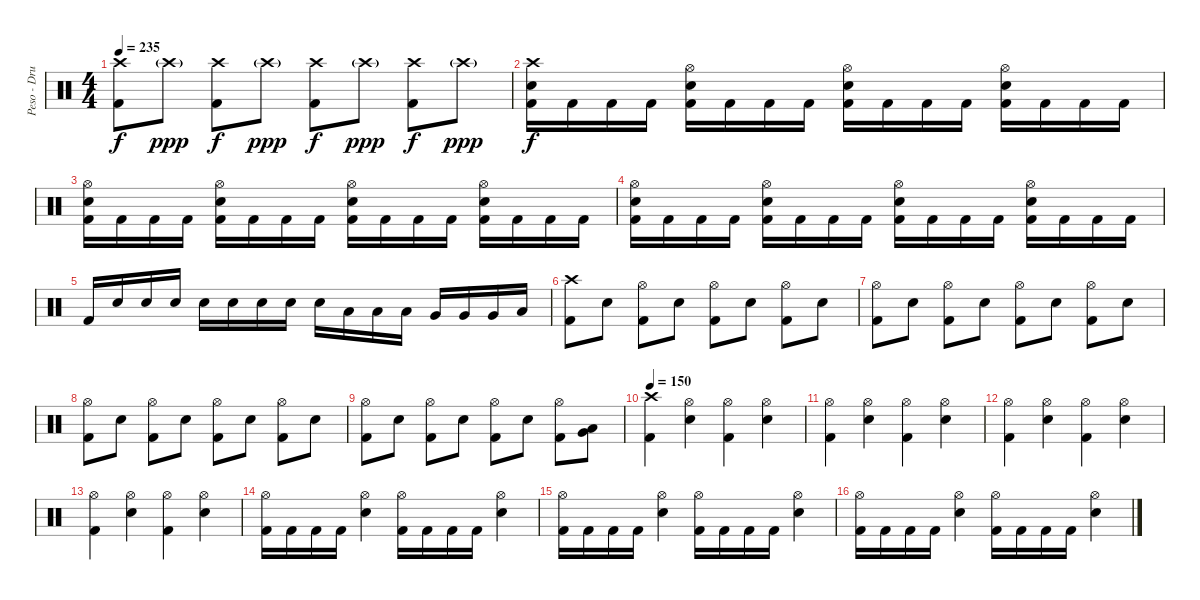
\track ("Peso - Drums" "Peso - Dru") {instrument percussion}
\staff {score}
\articulation defaults
\ts (4 4)
\tempo 235
\clef neutral
\ks c
("Crash high (hit)" "Kick (hit) 2").8{dy f} "Crash high (hit)"{g}.8{dy ppp} ("Crash high (hit)" "Kick (hit) 2").8{dy f} "Crash high (hit)"{g}.8{dy ppp} ("Crash high (hit)" "Kick (hit) 2").8{dy f} "Crash high (hit)"{g}.8{dy ppp} ("Crash high (hit)" "Kick (hit) 2").8{dy f} "Crash high (hit)"{g}.8{dy ppp} |
("Crash high (hit)" "Electric Snare (hit)" "Kick (hit) 2").16{dy f} "Kick (hit) 2".16 "Kick (hit) 2".16 "Kick (hit) 2".16 ("Hi-Hat (open)" "Electric Snare (hit)" "Kick (hit) 2").16 "Kick (hit) 2".16 "Kick (hit) 2".16 "Kick (hit) 2".16 ("Hi-Hat (open)" "Electric Snare (hit)" "Kick (hit) 2").16 "Kick (hit) 2".16 "Kick (hit) 2".16 "Kick (hit) 2".16 ("Hi-Hat (open)" "Electric Snare (hit)" "Kick (hit) 2").16 "Kick (hit) 2".16 "Kick (hit) 2".16 "Kick (hit) 2".16 |
("Hi-Hat (open)" "Electric Snare (hit)" "Kick (hit) 2").16 "Kick (hit) 2".16 "Kick (hit) 2".16 "Kick (hit) 2".16 ("Hi-Hat (open)" "Electric Snare (hit)" "Kick (hit) 2").16 "Kick (hit) 2".16 "Kick (hit) 2".16 "Kick (hit) 2".16 ("Hi-Hat (open)" "Electric Snare (hit)" "Kick (hit) 2").16 "Kick (hit) 2".16 "Kick (hit) 2".16 "Kick (hit) 2".16 ("Hi-Hat (open)" "Electric Snare (hit)" "Kick (hit) 2").16 "Kick (hit) 2".16 "Kick (hit) 2".16 "Kick (hit) 2".16 |
("Hi-Hat (open)" "Electric Snare (hit)" "Kick (hit) 2").16 "Kick (hit) 2".16 "Kick (hit) 2".16 "Kick (hit) 2".16 ("Hi-Hat (open)" "Electric Snare (hit)" "Kick (hit) 2").16 "Kick (hit) 2".16 "Kick (hit) 2".16 "Kick (hit) 2".16 ("Hi-Hat (open)" "Electric Snare (hit)" "Kick (hit) 2").16 "Kick (hit) 2".16 "Kick (hit) 2".16 "Kick (hit) 2".16 ("Hi-Hat (open)" "Electric Snare (hit)" "Kick (hit) 2").16 "Kick (hit) 2".16 "Kick (hit) 2".16 "Kick (hit) 2".16 |
"Kick (hit) 2".16 "Electric Snare (hit)".16 "Electric Snare (hit)".16 "Electric Snare (hit)".16 "Electric Snare (hit)".16 "Electric Snare (hit)".16 "Electric Snare (hit)".16 "Electric Snare (hit)".16 "Electric Snare (hit)".16 "Low Tom (hit)".16 "Low Tom (hit)".16 "Low Tom (hit)".16 "Very Low Tom (hit)".16 "Very Low Tom (hit)".16 "Very Low Tom (hit)".16 "Low Floor Tom (hit)".16 |
("Crash high (hit)" "Kick (hit) 2").8 "Electric Snare (hit)".8 ("Hi-Hat (open)" "Kick (hit) 2").8 "Electric Snare (hit)".8 ("Hi-Hat (open)" "Kick (hit) 2").8 "Electric Snare (hit)".8 ("Hi-Hat (open)" "Kick (hit) 2").8 "Electric Snare (hit)".8 |
("Hi-Hat (open)" "Kick (hit) 2").8 "Electric Snare (hit)".8 ("Hi-Hat (open)" "Kick (hit) 2").8 "Electric Snare (hit)".8 ("Hi-Hat (open)" "Kick (hit) 2").8 "Electric Snare (hit)".8 ("Hi-Hat (open)" "Kick (hit) 2").8 "Electric Snare (hit)".8 |
("Hi-Hat (open)" "Kick (hit) 2").8 "Electric Snare (hit)".8 ("Hi-Hat (open)" "Kick (hit) 2").8 "Electric Snare (hit)".8 ("Hi-Hat (open)" "Kick (hit) 2").8 "Electric Snare (hit)".8 ("Hi-Hat (open)" "Kick (hit) 2").8 "Electric Snare (hit)".8 |
("Hi-Hat (open)" "Kick (hit) 2").8 "Electric Snare (hit)".8 ("Hi-Hat (open)" "Kick (hit) 2").8 "Electric Snare (hit)".8 ("Hi-Hat (open)" "Kick (hit) 2").8 "Electric Snare (hit)".8 ("Hi-Hat (open)" "Kick (hit) 2").8 ("Very Low Tom (hit)" "Low Floor Tom (hit)").8 |
\tempo 150
("Crash high (hit)" "Kick (hit) 2").4 ("Hi-Hat (open)" "Electric Snare (hit)").4 ("Hi-Hat (open)" "Kick (hit) 2").4 ("Hi-Hat (open)" "Electric Snare (hit)").4 |
("Hi-Hat (open)" "Kick (hit) 2").4 ("Hi-Hat (open)" "Electric Snare (hit)").4 ("Hi-Hat (open)" "Kick (hit) 2").4 ("Hi-Hat (open)" "Electric Snare (hit)").4 |
("Hi-Hat (open)" "Kick (hit) 2").4 ("Hi-Hat (open)" "Electric Snare (hit)").4 ("Hi-Hat (open)" "Kick (hit) 2").4 ("Hi-Hat (open)" "Electric Snare (hit)").4 |
("Hi-Hat (open)" "Kick (hit) 2").4 ("Hi-Hat (open)" "Electric Snare (hit)").4 ("Hi-Hat (open)" "Kick (hit) 2").4 ("Hi-Hat (open)" "Electric Snare (hit)").4 |
("Hi-Hat (open)" "Kick (hit) 2").16 "Kick (hit) 2".16 "Kick (hit) 2".16 "Kick (hit) 2".16 ("Hi-Hat (open)" "Electric Snare (hit)").4 ("Hi-Hat (open)" "Kick (hit) 2").16 "Kick (hit) 2".16 "Kick (hit) 2".16 "Kick (hit) 2".16 ("Hi-Hat (open)" "Electric Snare (hit)").4 |
("Hi-Hat (open)" "Kick (hit) 2").16 "Kick (hit) 2".16 "Kick (hit) 2".16 "Kick (hit) 2".16 ("Hi-Hat (open)" "Electric Snare (hit)").4 ("Hi-Hat (open)" "Kick (hit) 2").16 "Kick (hit) 2".16 "Kick (hit) 2".16 "Kick (hit) 2".16 ("Hi-Hat (open)" "Electric Snare (hit)").4 |
("Hi-Hat (open)" "Kick (hit) 2").16 "Kick (hit) 2".16 "Kick (hit) 2".16 "Kick (hit) 2".16 ("Hi-Hat (open)" "Electric Snare (hit)").4 ("Hi-Hat (open)" "Kick (hit) 2").16 "Kick (hit) 2".16 "Kick (hit) 2".16 "Kick (hit) 2".16 ("Hi-Hat (open)" "Electric Snare (hit)").4
